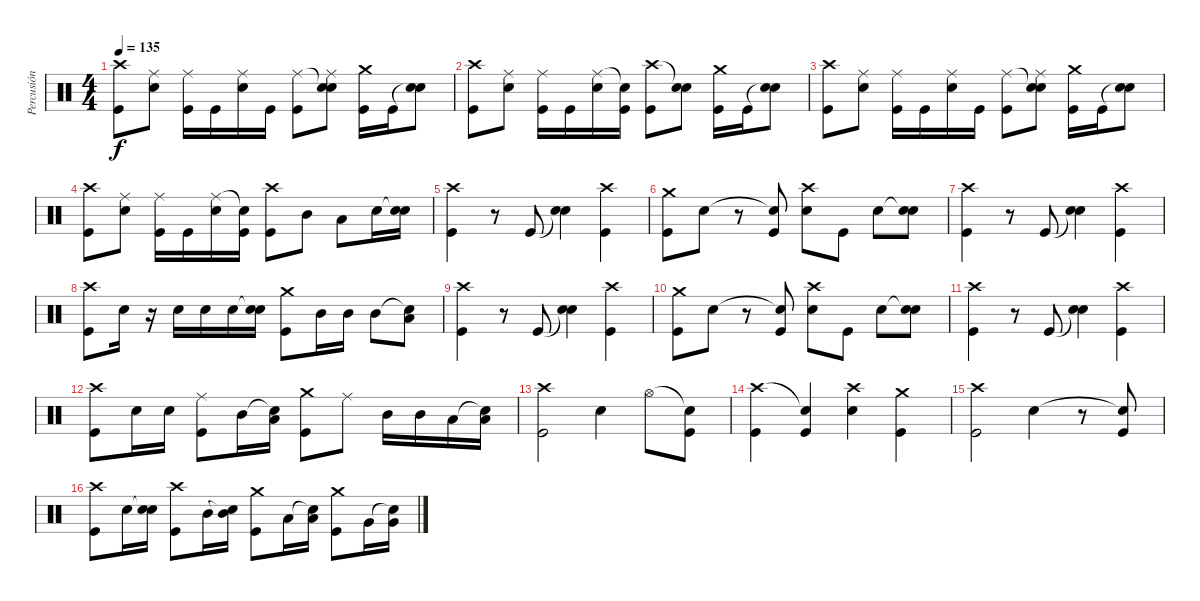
\track ("Percusión" "Percusión") {instrument percussion}
\staff {score}
\articulation defaults
\ts (4 4)
\tempo 135
\clef neutral
\ks c
("Crash high (hit)" "Kick (hit)").8{dy f} ("Ride (middle)" "Snare (hit) 2").8 ("Ride (middle)" "Kick (hit)").16 "Kick (hit)".16 ("Ride (middle)" "Snare (hit) 2").16 "Kick (hit)".16 ("Ride (middle)" "Kick (hit)").8 ("Snare (hit)"{t} "Ride (middle)" "Snare (hit) 2").8 ("Crash medium (hit)" "Kick (hit)").16 "Kick (hit)".16 ("Snare (hit)"{t} "Snare (hit) 2").8 |
("Crash high (hit)" "Kick (hit)").8 ("Ride (middle)" "Snare (hit) 2").8 ("Ride (middle)" "Kick (hit)").16 "Kick (hit)".16 ("Ride (middle)" "Snare (hit) 2").16 ("Snare (hit)"{t} "Kick (hit)").16 ("Crash high (hit)" "Kick (hit)").8 ("Snare (hit)"{t} "Snare (hit) 2").8 ("Crash medium (hit)" "Kick (hit)").16 "Kick (hit)".16 ("Snare (hit)"{t} "Snare (hit) 2").8 |
("Crash high (hit)" "Kick (hit)").8 ("Ride (middle)" "Snare (hit) 2").8 ("Ride (middle)" "Kick (hit)").16 "Kick (hit)".16 ("Ride (middle)" "Snare (hit) 2").16 "Kick (hit)".16 ("Ride (middle)" "Kick (hit)").8 ("Snare (hit)"{t} "Ride (middle)" "Snare (hit) 2").8 ("Crash medium (hit)" "Kick (hit)").16 "Kick (hit)".16 ("Snare (hit)"{t} "Snare (hit) 2").8 |
("Crash high (hit)" "Kick (hit)").8 ("Ride (middle)" "Snare (hit) 2").8 ("Ride (middle)" "Kick (hit)").16 "Kick (hit)".16 ("Ride (middle)" "Snare (hit) 2").16 ("Snare (hit)"{t} "Kick (hit)").16 ("Crash high (hit)" "Kick (hit)").8 "Mid Tom (hit)".8 "Low Tom (hit)".8 "Snare (hit) 2".16 ("Snare (hit)"{t} "Snare (hit) 2").16 |
("Crash high (hit)" "Kick (hit)").4 r.8 "Kick (hit)".8 ("Snare (hit)"{t} "Snare (hit) 2").4 ("Crash high (hit)" "Kick (hit)").4 |
("Crash medium (hit)" "Kick (hit)").8 "Snare (hit) 2".8 r.8 ("Snare (hit)"{t} "Kick (hit)").8 ("Crash high (hit)" "Snare (hit) 2").8 "Kick (hit)".8 "Snare (hit) 2".8 ("Snare (hit)"{t} "Snare (hit) 2").8 |
("Crash high (hit)" "Kick (hit)").4 r.8 "Kick (hit)".8 ("Snare (hit)"{t} "Snare (hit) 2").4 ("Crash high (hit)" "Kick (hit)").4 |
("Crash high (hit)" "Kick (hit)").8 "Snare (hit) 2".16 r.16 "Snare (hit) 2".16 "Snare (hit) 2".16 "Snare (hit) 2".16 ("Snare (hit)"{t} "Snare (hit) 2").16 ("Crash medium (hit)" "Kick (hit)").8 "Mid Tom (hit)".16 "Mid Tom (hit)".16 "Mid Tom (hit)".8 ("Snare (hit)"{t} "Low Tom (hit)").8 |
("Crash high (hit)" "Kick (hit)").4 r.8 "Kick (hit)".8 ("Snare (hit)"{t} "Snare (hit) 2").4 ("Crash high (hit)" "Kick (hit)").4 |
("Crash medium (hit)" "Kick (hit)").8 "Snare (hit) 2".8 r.8 ("Snare (hit)"{t} "Kick (hit)").8 ("Crash high (hit)" "Snare (hit) 2").8 "Kick (hit)".8 "Snare (hit) 2".8 ("Snare (hit)"{t} "Snare (hit) 2").8 |
("Crash high (hit)" "Kick (hit)").4 r.8 "Kick (hit)".8 ("Snare (hit)"{t} "Snare (hit) 2").4 ("Crash high (hit)" "Kick (hit)").4 |
("Crash high (hit)" "Kick (hit)").8 "Snare (hit) 2".16 "Snare (hit) 2".16 ("Ride (middle)" "Kick (hit)").8 "Mid Tom (hit)".16 ("Snare (hit)"{t} "Low Tom (hit)").16 ("Crash medium (hit)" "Kick (hit)").8 "Ride (middle)".8 "Mid Tom (hit)".16 "Mid Tom (hit)".16 "Low Tom (hit)".16 ("Snare (hit)"{t} "Low Tom (hit)").16 |
("Crash high (hit)" "Kick (hit)").2 "Snare (hit) 2".4 "Hi-Hat (open)".8 ("Snare (hit)"{t} "Kick (hit)").8 |
("Crash high (hit)" "Kick (hit)").4 ("Snare (hit)"{t} "Kick (hit)").4 ("Crash high (hit)" "Snare (hit) 2").4 ("Crash medium (hit)" "Kick (hit)").4 |
("Crash high (hit)" "Kick (hit)").2 "Snare (hit) 2".4 r.8 ("Snare (hit)"{t} "Kick (hit)").8 |
("Crash high (hit)" "Kick (hit)").8 "Snare (hit) 2".16 ("Snare (hit)"{t} "Snare (hit) 2").16 ("Crash high (hit)" "Kick (hit)").8 "Mid Tom (hit)".16 ("Snare (hit)"{t} "Mid Tom (hit)").16 ("Crash medium (hit)" "Kick (hit)").8 "Low Tom (hit)".16 ("Snare (hit)"{t} "Low Tom (hit)").16 ("Crash medium (hit)" "Kick (hit)").8 "Very Low Tom (hit)".16 ("Snare (hit)"{t} "Very Low Tom (hit)").16
